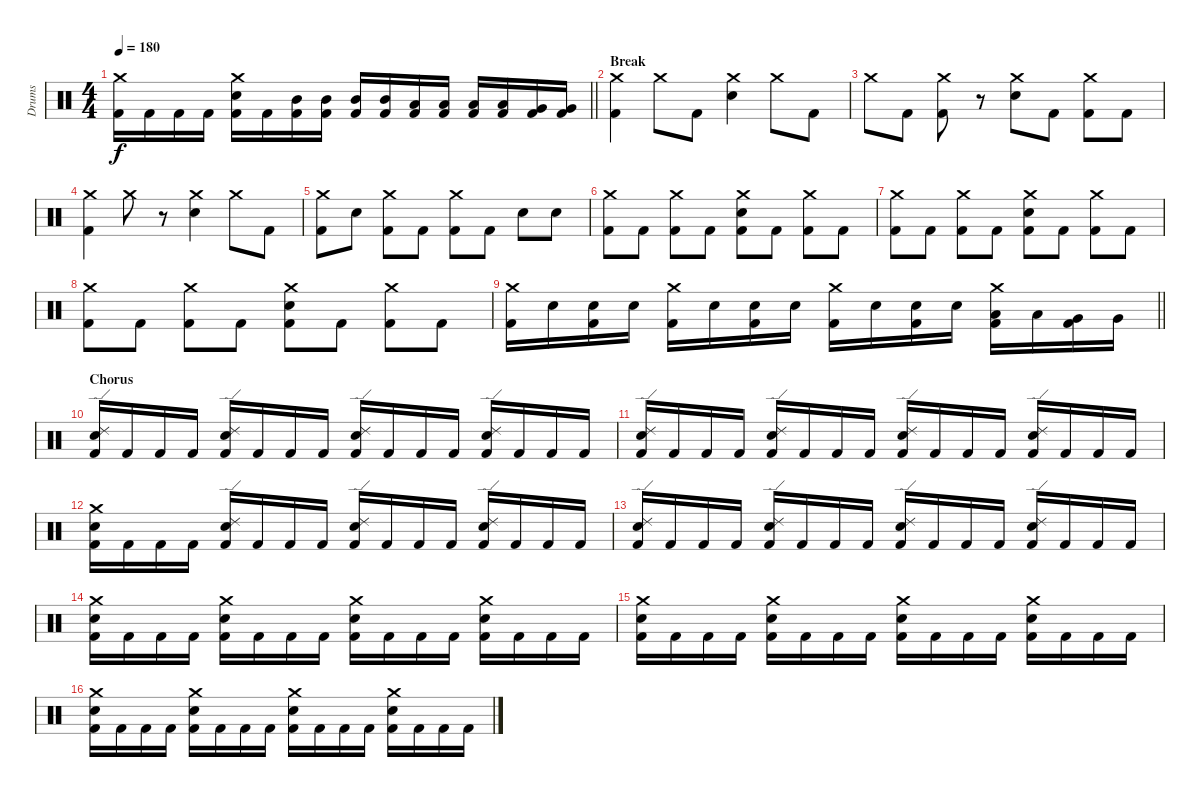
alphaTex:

\track ("Drums" "Drums") {instrument percussion}
\staff {score}
\articulation defaults
\ts (4 4)
\tempo 180
\clef neutral
\barLineRight lightlight
\ks c
("Crash medium (hit)" "Kick (hit) 2").16{dy f} "Kick (hit) 2".16 "Kick (hit) 2".16 "Kick (hit) 2".16 ("Crash medium (hit)" "Snare (hit) 2" "Kick (hit) 2").16 "Kick (hit) 2".16 ("Mid Tom (hit)" "Kick (hit) 2").16 ("Mid Tom (hit)" "Kick (hit) 2").16 ("Mid Tom (hit)" "Kick (hit) 2").16 ("Mid Tom (hit)" "Kick (hit) 2").16 ("Low Tom (hit)" "Kick (hit) 2").16 ("Low Tom (hit)" "Kick (hit) 2").16 ("Low Tom (hit)" "Kick (hit) 2").16 ("Low Tom (hit)" "Kick (hit) 2").16 ("Very Low Tom (hit)" "Kick (hit) 2").16 ("Very Low Tom (hit)" "Kick (hit) 2").16 |
\section ("" "Break")
("Crash medium (hit)" "Kick (hit) 2").4 "Crash medium (hit)".8 "Kick (hit) 2".8 ("Crash medium (hit)" "Snare (hit) 2").4 "Crash medium (hit)".8 "Kick (hit) 2".8 |
"Crash medium (hit)".8 "Kick (hit) 2".8 ("Crash medium (hit)" "Kick (hit) 2").8 r.8 ("Crash medium (hit)" "Snare (hit) 2").8 "Kick (hit) 2".8 ("Crash medium (hit)" "Kick (hit) 2").8 "Kick (hit) 2".8 |
("Crash medium (hit)" "Kick (hit) 2").4 "Crash medium (hit)".8 r.8 ("Crash medium (hit)" "Snare (hit) 2").4 "Crash medium (hit)".8 "Kick (hit) 2".8 |
("Crash medium (hit)" "Kick (hit) 2").8 "Snare (hit) 2".8 ("Crash medium (hit)" "Kick (hit) 2").8 "Kick (hit) 2".8 ("Crash medium (hit)" "Kick (hit) 2").8 "Kick (hit) 2".8 "Snare (hit) 2".8 "Snare (hit) 2".8 |
("Crash medium (hit)" "Kick (hit) 2").8 "Kick (hit) 2".8 ("Crash medium (hit)" "Kick (hit) 2").8 "Kick (hit) 2".8 ("Crash medium (hit)" "Snare (hit) 2" "Kick (hit) 2").8 "Kick (hit) 2".8 ("Crash medium (hit)" "Kick (hit) 2").8 "Kick (hit) 2".8 |
("Crash medium (hit)" "Kick (hit) 2").8 "Kick (hit) 2".8 ("Crash medium (hit)" "Kick (hit) 2").8 "Kick (hit) 2".8 ("Crash medium (hit)" "Snare (hit) 2" "Kick (hit) 2").8 "Kick (hit) 2".8 ("Crash medium (hit)" "Kick (hit) 2").8 "Kick (hit) 2".8 |
("Crash medium (hit)" "Kick (hit) 2").8 "Kick (hit) 2".8 ("Crash medium (hit)" "Kick (hit) 2").8 "Kick (hit) 2".8 ("Crash medium (hit)" "Snare (hit) 2" "Kick (hit) 2").8 "Kick (hit) 2".8 ("Crash medium (hit)" "Kick (hit) 2").8 "Kick (hit) 2".8 |
\barLineRight lightlight
("Crash medium (hit)" "Kick (hit) 2").16 "Snare (hit) 2".16 ("Snare (hit) 2" "Kick (hit) 2").16 "Snare (hit) 2".16 ("Crash medium (hit)" "Kick (hit) 2").16 "Snare (hit) 2".16 ("Snare (hit) 2" "Kick (hit) 2").16 "Snare (hit) 2".16 ("Crash medium (hit)" "Kick (hit) 2").16 "Snare (hit) 2".16 ("Snare (hit) 2" "Kick (hit) 2").16 "Snare (hit) 2".16 ("Crash medium (hit)" "Low Tom (hit)" "Kick (hit) 2").16 "Low Tom (hit)".16 ("Very Low Tom (hit)" "Kick (hit) 2").16 "Very Low Tom (hit)".16 |
\section ("" "Chorus")
("Ride (edge) 2" "Snare (hit) 2" "Kick (hit) 2").16 "Kick (hit) 2".16 "Kick (hit) 2".16 "Kick (hit) 2".16 ("Ride (edge) 2" "Snare (hit) 2" "Kick (hit) 2").16 "Kick (hit) 2".16 "Kick (hit) 2".16 "Kick (hit) 2".16 ("Ride (edge) 2" "Snare (hit) 2" "Kick (hit) 2").16 "Kick (hit) 2".16 "Kick (hit) 2".16 "Kick (hit) 2".16 ("Ride (edge) 2" "Snare (hit) 2" "Kick (hit) 2").16 "Kick (hit) 2".16 "Kick (hit) 2".16 "Kick (hit) 2".16 |
("Ride (edge) 2" "Snare (hit) 2" "Kick (hit) 2").16 "Kick (hit) 2".16 "Kick (hit) 2".16 "Kick (hit) 2".16 ("Ride (edge) 2" "Snare (hit) 2" "Kick (hit) 2").16 "Kick (hit) 2".16 "Kick (hit) 2".16 "Kick (hit) 2".16 ("Ride (edge) 2" "Snare (hit) 2" "Kick (hit) 2").16 "Kick (hit) 2".16 "Kick (hit) 2".16 "Kick (hit) 2".16 ("Ride (edge) 2" "Snare (hit) 2" "Kick (hit) 2").16 "Kick (hit) 2".16 "Kick (hit) 2".16 "Kick (hit) 2".16 |
("Crash medium (hit)" "Snare (hit) 2" "Kick (hit) 2").16 "Kick (hit) 2".16 "Kick (hit) 2".16 "Kick (hit) 2".16 ("Ride (edge) 2" "Snare (hit) 2" "Kick (hit) 2").16 "Kick (hit) 2".16 "Kick (hit) 2".16 "Kick (hit) 2".16 ("Ride (edge) 2" "Snare (hit) 2" "Kick (hit) 2").16 "Kick (hit) 2".16 "Kick (hit) 2".16 "Kick (hit) 2".16 ("Ride (edge) 2" "Snare (hit) 2" "Kick (hit) 2").16 "Kick (hit) 2".16 "Kick (hit) 2".16 "Kick (hit) 2".16 |
("Ride (edge) 2" "Snare (hit) 2" "Kick (hit) 2").16 "Kick (hit) 2".16 "Kick (hit) 2".16 "Kick (hit) 2".16 ("Ride (edge) 2" "Snare (hit) 2" "Kick (hit) 2").16 "Kick (hit) 2".16 "Kick (hit) 2".16 "Kick (hit) 2".16 ("Ride (edge) 2" "Snare (hit) 2" "Kick (hit) 2").16 "Kick (hit) 2".16 "Kick (hit) 2".16 "Kick (hit) 2".16 ("Ride (edge) 2" "Snare (hit) 2" "Kick (hit) 2").16 "Kick (hit) 2".16 "Kick (hit) 2".16 "Kick (hit) 2".16 |
("Crash medium (hit)" "Snare (hit) 2" "Kick (hit) 2").16 "Kick (hit) 2".16 "Kick (hit) 2".16 "Kick (hit) 2".16 ("Crash medium (hit)" "Snare (hit) 2" "Kick (hit) 2").16 "Kick (hit) 2".16 "Kick (hit) 2".16 "Kick (hit) 2".16 ("Crash medium (hit)" "Snare (hit) 2" "Kick (hit) 2").16 "Kick (hit) 2".16 "Kick (hit) 2".16 "Kick (hit) 2".16 ("Crash medium (hit)" "Snare (hit) 2" "Kick (hit) 2").16 "Kick (hit) 2".16 "Kick (hit) 2".16 "Kick (hit) 2".16 |
("Crash medium (hit)" "Snare (hit) 2" "Kick (hit) 2").16 "Kick (hit) 2".16 "Kick (hit) 2".16 "Kick (hit) 2".16 ("Crash medium (hit)" "Snare (hit) 2" "Kick (hit) 2").16 "Kick (hit) 2".16 "Kick (hit) 2".16 "Kick (hit) 2".16 ("Crash medium (hit)" "Snare (hit) 2" "Kick (hit) 2").16 "Kick (hit) 2".16 "Kick (hit) 2".16 "Kick (hit) 2".16 ("Crash medium (hit)" "Snare (hit) 2" "Kick (hit) 2").16 "Kick (hit) 2".16 "Kick (hit) 2".16 "Kick (hit) 2".16 |
("Crash medium (hit)" "Snare (hit) 2" "Kick (hit) 2").16 "Kick (hit) 2".16 "Kick (hit) 2".16 "Kick (hit) 2".16 ("Crash medium (hit)" "Snare (hit) 2" "Kick (hit) 2").16 "Kick (hit) 2".16 "Kick (hit) 2".16 "Kick (hit) 2".16 ("Crash medium (hit)" "Snare (hit) 2" "Kick (hit) 2").16 "Kick (hit) 2".16 "Kick (hit) 2".16 "Kick (hit) 2".16 ("Crash medium (hit)" "Snare (hit) 2" "Kick (hit) 2").16 "Kick (hit) 2".16 "Kick (hit) 2".16 "Kick (hit) 2".16
